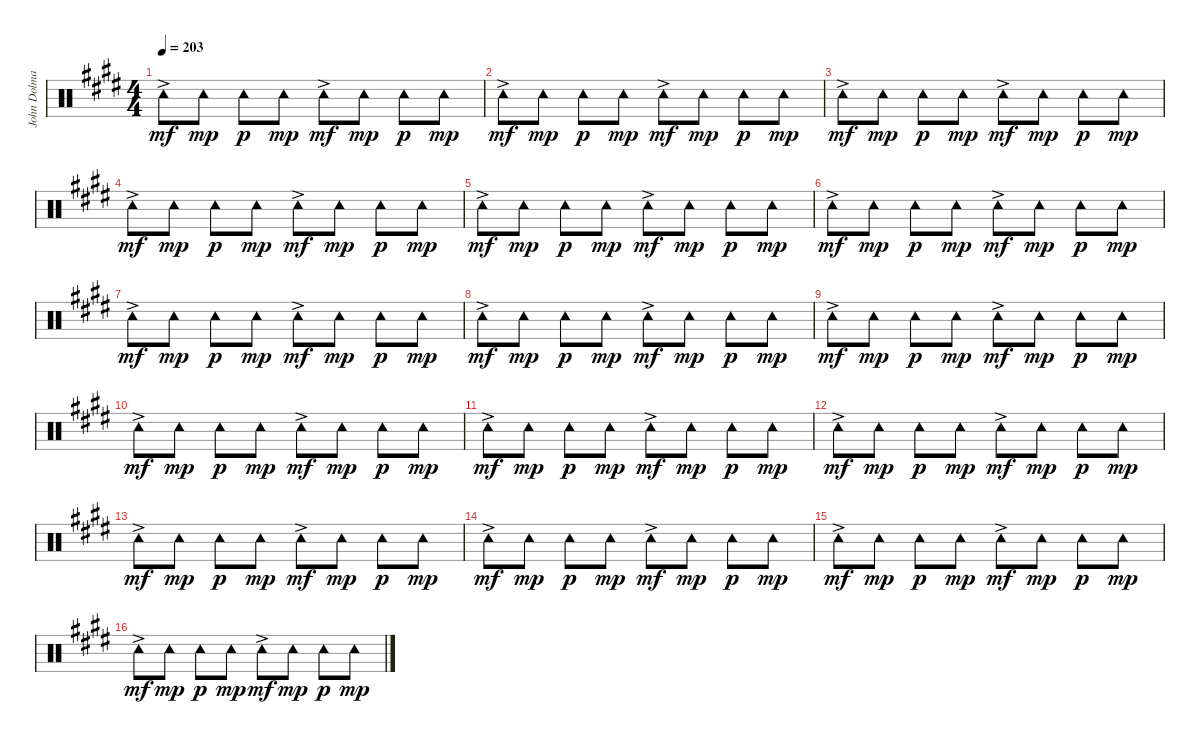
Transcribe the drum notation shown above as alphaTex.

\track ("John Dolmayan [Tambourine]" "John Dolma") {instrument percussion}
\staff {score}
\articulation defaults
\ts (4 4)
\tempo 203
\clef neutral
\ks c#minor "Tambourine (hit)"{ac}.8{dy mf} "Tambourine (hit)".8{dy mp} "Tambourine (hit)".8{dy p} "Tambourine (hit)".8{dy mp} "Tambourine (hit)"{ac}.8{dy mf} "Tambourine (hit)".8{dy mp} "Tambourine (hit)".8{dy p} "Tambourine (hit)".8{dy mp}
|
"Tambourine (hit)"{ac}.8{dy mf} "Tambourine (hit)".8{dy mp} "Tambourine (hit)".8{dy p} "Tambourine (hit)".8{dy mp} "Tambourine (hit)"{ac}.8{dy mf} "Tambourine (hit)".8{dy mp} "Tambourine (hit)".8{dy p} "Tambourine (hit)".8{dy mp} |
"Tambourine (hit)"{ac}.8{dy mf} "Tambourine (hit)".8{dy mp} "Tambourine (hit)".8{dy p} "Tambourine (hit)".8{dy mp} "Tambourine (hit)"{ac}.8{dy mf} "Tambourine (hit)".8{dy mp} "Tambourine (hit)".8{dy p} "Tambourine (hit)".8{dy mp} |
"Tambourine (hit)"{ac}.8{dy mf} "Tambourine (hit)".8{dy mp} "Tambourine (hit)".8{dy p} "Tambourine (hit)".8{dy mp} "Tambourine (hit)"{ac}.8{dy mf} "Tambourine (hit)".8{dy mp} "Tambourine (hit)".8{dy p} "Tambourine (hit)".8{dy mp} |
"Tambourine (hit)"{ac}.8{dy mf} "Tambourine (hit)".8{dy mp} "Tambourine (hit)".8{dy p} "Tambourine (hit)".8{dy mp} "Tambourine (hit)"{ac}.8{dy mf} "Tambourine (hit)".8{dy mp} "Tambourine (hit)".8{dy p} "Tambourine (hit)".8{dy mp} |
"Tambourine (hit)"{ac}.8{dy mf} "Tambourine (hit)".8{dy mp} "Tambourine (hit)".8{dy p} "Tambourine (hit)".8{dy mp} "Tambourine (hit)"{ac}.8{dy mf} "Tambourine (hit)".8{dy mp} "Tambourine (hit)".8{dy p} "Tambourine (hit)".8{dy mp} |
"Tambourine (hit)"{ac}.8{dy mf} "Tambourine (hit)".8{dy mp} "Tambourine (hit)".8{dy p} "Tambourine (hit)".8{dy mp} "Tambourine (hit)"{ac}.8{dy mf} "Tambourine (hit)".8{dy mp} "Tambourine (hit)".8{dy p} "Tambourine (hit)".8{dy mp} |
"Tambourine (hit)"{ac}.8{dy mf} "Tambourine (hit)".8{dy mp} "Tambourine (hit)".8{dy p} "Tambourine (hit)".8{dy mp} "Tambourine (hit)"{ac}.8{dy mf} "Tambourine (hit)".8{dy mp} "Tambourine (hit)".8{dy p} "Tambourine (hit)".8{dy mp} |
"Tambourine (hit)"{ac}.8{dy mf} "Tambourine (hit)".8{dy mp} "Tambourine (hit)".8{dy p} "Tambourine (hit)".8{dy mp} "Tambourine (hit)"{ac}.8{dy mf} "Tambourine (hit)".8{dy mp} "Tambourine (hit)".8{dy p} "Tambourine (hit)".8{dy mp} |
"Tambourine (hit)"{ac}.8{dy mf} "Tambourine (hit)".8{dy mp} "Tambourine (hit)".8{dy p} "Tambourine (hit)".8{dy mp} "Tambourine (hit)"{ac}.8{dy mf} "Tambourine (hit)".8{dy mp} "Tambourine (hit)".8{dy p} "Tambourine (hit)".8{dy mp} |
"Tambourine (hit)"{ac}.8{dy mf} "Tambourine (hit)".8{dy mp} "Tambourine (hit)".8{dy p} "Tambourine (hit)".8{dy mp} "Tambourine (hit)"{ac}.8{dy mf} "Tambourine (hit)".8{dy mp} "Tambourine (hit)".8{dy p} "Tambourine (hit)".8{dy mp} |
"Tambourine (hit)"{ac}.8{dy mf} "Tambourine (hit)".8{dy mp} "Tambourine (hit)".8{dy p} "Tambourine (hit)".8{dy mp} "Tambourine (hit)"{ac}.8{dy mf} "Tambourine (hit)".8{dy mp} "Tambourine (hit)".8{dy p} "Tambourine (hit)".8{dy mp} |
"Tambourine (hit)"{ac}.8{dy mf} "Tambourine (hit)".8{dy mp} "Tambourine (hit)".8{dy p} "Tambourine (hit)".8{dy mp} "Tambourine (hit)"{ac}.8{dy mf} "Tambourine (hit)".8{dy mp} "Tambourine (hit)".8{dy p} "Tambourine (hit)".8{dy mp} |
"Tambourine (hit)"{ac}.8{dy mf} "Tambourine (hit)".8{dy mp} "Tambourine (hit)".8{dy p} "Tambourine (hit)".8{dy mp} "Tambourine (hit)"{ac}.8{dy mf} "Tambourine (hit)".8{dy mp} "Tambourine (hit)".8{dy p} "Tambourine (hit)".8{dy mp} |
"Tambourine (hit)"{ac}.8{dy mf} "Tambourine (hit)".8{dy mp} "Tambourine (hit)".8{dy p} "Tambourine (hit)".8{dy mp} "Tambourine (hit)"{ac}.8{dy mf} "Tambourine (hit)".8{dy mp} "Tambourine (hit)".8{dy p} "Tambourine (hit)".8{dy mp} |
"Tambourine (hit)"{ac}.8{dy mf} "Tambourine (hit)".8{dy mp} "Tambourine (hit)".8{dy p} "Tambourine (hit)".8{dy mp} "Tambourine (hit)"{ac}.8{dy mf} "Tambourine (hit)".8{dy mp} "Tambourine (hit)".8{dy p} "Tambourine (hit)".8{dy mp}
